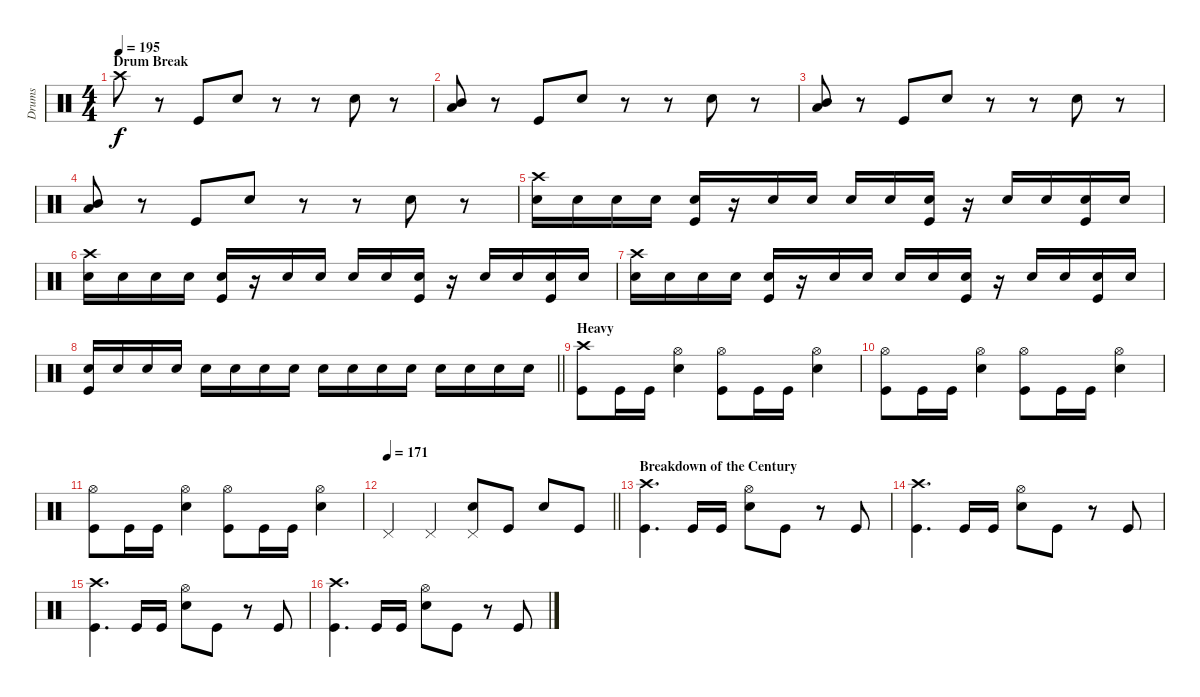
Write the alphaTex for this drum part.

\track ("Drums" "Drums") {instrument percussion}
\staff {score}
\articulation defaults
\ts (4 4)
\section ("" "Drum Break")
\tempo 195
\clef neutral
\ks c "Crash high (hit)".8{dy f}
r.8 "Kick (hit)".8 "Snare (hit) 2".8 r.8 r.8 "Snare (hit) 2".8 r.8 |
("Mid Tom (hit)" "Low Tom (hit)").8 r.8 "Kick (hit)".8 "Snare (hit) 2".8 r.8 r.8 "Snare (hit) 2".8 r.8 |
("Mid Tom (hit)" "Low Tom (hit)").8 r.8 "Kick (hit)".8 "Snare (hit) 2".8 r.8 r.8 "Snare (hit) 2".8 r.8 |
("Mid Tom (hit)" "Low Tom (hit)").8 r.8 "Kick (hit)".8 "Snare (hit) 2".8 r.8 r.8 "Snare (hit) 2".8 r.8 |
("Crash high (hit)" "Snare (hit) 2").16 "Snare (hit) 2".16 "Snare (hit) 2".16 "Snare (hit) 2".16 ("Snare (hit) 2" "Kick (hit)").16 r.16 "Snare (hit) 2".16 "Snare (hit) 2".16 "Snare (hit) 2".16 "Snare (hit) 2".16 ("Snare (hit) 2" "Kick (hit)").16 r.16 "Snare (hit) 2".16 "Snare (hit) 2".16 ("Snare (hit) 2" "Kick (hit)").16 "Snare (hit) 2".16 |
("Crash high (hit)" "Snare (hit) 2").16 "Snare (hit) 2".16 "Snare (hit) 2".16 "Snare (hit) 2".16 ("Snare (hit) 2" "Kick (hit)").16 r.16 "Snare (hit) 2".16 "Snare (hit) 2".16 "Snare (hit) 2".16 "Snare (hit) 2".16 ("Snare (hit) 2" "Kick (hit)").16 r.16 "Snare (hit) 2".16 "Snare (hit) 2".16 ("Snare (hit) 2" "Kick (hit)").16 "Snare (hit) 2".16 |
("Crash high (hit)" "Snare (hit) 2").16 "Snare (hit) 2".16 "Snare (hit) 2".16 "Snare (hit) 2".16 ("Snare (hit) 2" "Kick (hit)").16 r.16 "Snare (hit) 2".16 "Snare (hit) 2".16 "Snare (hit) 2".16 "Snare (hit) 2".16 ("Snare (hit) 2" "Kick (hit)").16 r.16 "Snare (hit) 2".16 "Snare (hit) 2".16 ("Snare (hit) 2" "Kick (hit)").16 "Snare (hit) 2".16 |
\barLineRight lightlight
("Snare (hit) 2" "Kick (hit)").16 "Snare (hit) 2".16 "Snare (hit) 2".16 "Snare (hit) 2".16 "Snare (hit) 2".16 "Snare (hit) 2".16 "Snare (hit) 2".16 "Snare (hit) 2".16 "Snare (hit) 2".16 "Snare (hit) 2".16 "Snare (hit) 2".16 "Snare (hit) 2".16 "Snare (hit) 2".16 "Snare (hit) 2".16 "Snare (hit) 2".16 "Snare (hit) 2".16 |
\section ("" "Heavy")
("Crash high (hit)" "Kick (hit)").8 "Kick (hit)".16 "Kick (hit)".16 ("Hi-Hat (open)" "Snare (hit) 2").4 ("Hi-Hat (open)" "Kick (hit)").8 "Kick (hit)".16 "Kick (hit)".16 ("Hi-Hat (open)" "Snare (hit) 2").4 |
("Hi-Hat (open)" "Kick (hit)").8 "Kick (hit)".16 "Kick (hit)".16 ("Hi-Hat (open)" "Snare (hit) 2").4 ("Hi-Hat (open)" "Kick (hit)").8 "Kick (hit)".16 "Kick (hit)".16 ("Hi-Hat (open)" "Snare (hit) 2").4 |
("Hi-Hat (open)" "Kick (hit)").8 "Kick (hit)".16 "Kick (hit)".16 ("Hi-Hat (open)" "Snare (hit) 2").4 ("Hi-Hat (open)" "Kick (hit)").8 "Kick (hit)".16 "Kick (hit)".16 ("Hi-Hat (open)" "Snare (hit) 2").4 |
\tempo 171
\barLineRight lightlight "Pedal Hi-Hat (hit)".4 "Pedal Hi-Hat (hit)".4
("Pedal Hi-Hat (hit)" "Snare (hit) 2").8 "Kick (hit)".8 "Snare (hit) 2".8 "Kick (hit)".8 |
\section ("" "Breakdown of the Century")
("Crash high (hit)" "Kick (hit)").4{d} "Kick (hit)".16 "Kick (hit)".16 ("Hi-Hat (open)" "Snare (hit) 2").8 "Kick (hit)".8 r.8 "Kick (hit)".8 |
("Crash high (hit)" "Kick (hit)").4{d} "Kick (hit)".16 "Kick (hit)".16 ("Hi-Hat (open)" "Snare (hit) 2").8 "Kick (hit)".8 r.8 "Kick (hit)".8 |
("Crash high (hit)" "Kick (hit)").4{d} "Kick (hit)".16 "Kick (hit)".16 ("Hi-Hat (open)" "Snare (hit) 2").8 "Kick (hit)".8 r.8 "Kick (hit)".8 |
("Crash high (hit)" "Kick (hit)").4{d} "Kick (hit)".16 "Kick (hit)".16 ("Hi-Hat (open)" "Snare (hit) 2").8 "Kick (hit)".8 r.8 "Kick (hit)".8
